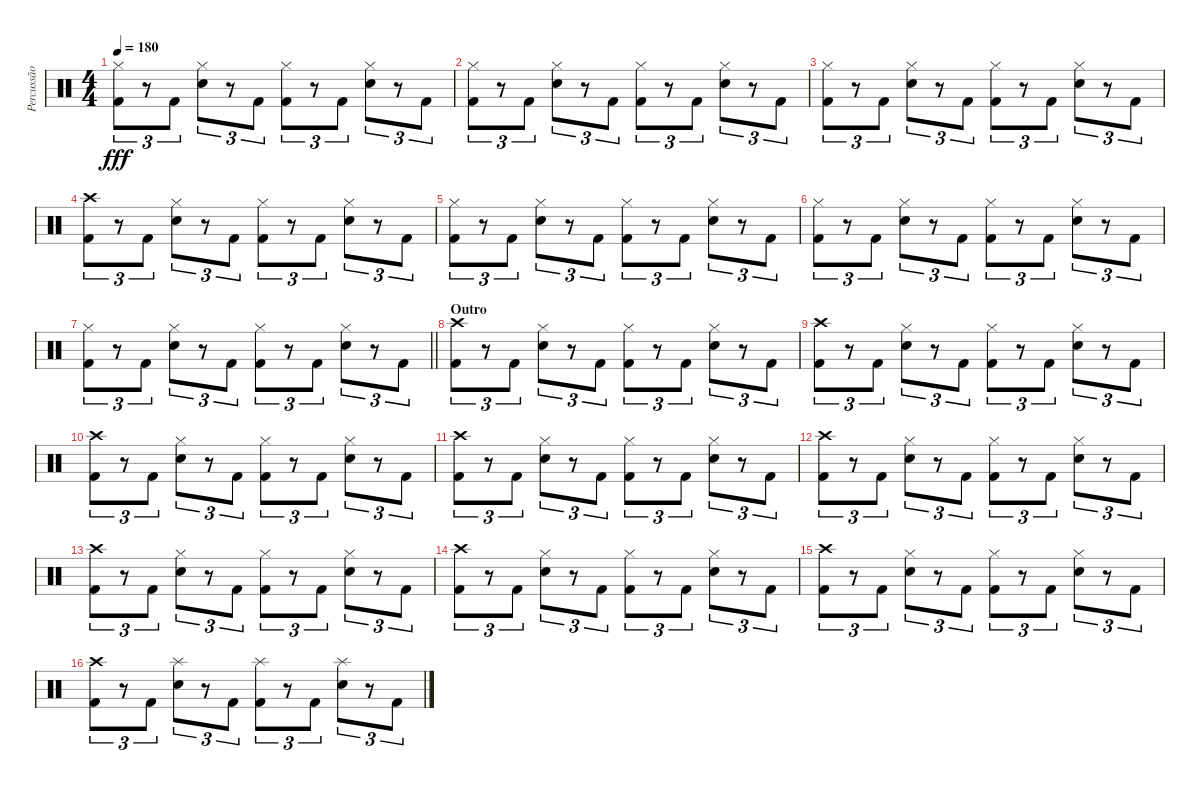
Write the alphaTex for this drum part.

\track ("Percussão" "Percussão") {instrument percussion}
\staff {score}
\articulation defaults
\ts (4 4)
\tempo 180
\clef neutral
\ks c
("Hi-Hat (closed)" "Kick (hit) 2").8{tu (3 2) dy fff} r.8{tu (3 2)} "Kick (hit) 2".8{tu (3 2)} ("Hi-Hat (closed)" "Snare (hit) 2").8{tu (3 2)} r.8{tu (3 2)} "Kick (hit) 2".8{tu (3 2)} ("Hi-Hat (closed)" "Kick (hit) 2").8{tu (3 2)} r.8{tu (3 2)} "Kick (hit) 2".8{tu (3 2)} ("Hi-Hat (closed)" "Snare (hit) 2").8{tu (3 2)} r.8{tu (3 2)} "Kick (hit) 2".8{tu (3 2)} |
("Hi-Hat (closed)" "Kick (hit) 2").8{tu (3 2)} r.8{tu (3 2)} "Kick (hit) 2".8{tu (3 2)} ("Hi-Hat (closed)" "Snare (hit) 2").8{tu (3 2)} r.8{tu (3 2)} "Kick (hit) 2".8{tu (3 2)} ("Hi-Hat (closed)" "Kick (hit) 2").8{tu (3 2)} r.8{tu (3 2)} "Kick (hit) 2".8{tu (3 2)} ("Hi-Hat (closed)" "Snare (hit) 2").8{tu (3 2)} r.8{tu (3 2)} "Kick (hit) 2".8{tu (3 2)} |
("Hi-Hat (closed)" "Kick (hit) 2").8{tu (3 2)} r.8{tu (3 2)} "Kick (hit) 2".8{tu (3 2)} ("Hi-Hat (closed)" "Snare (hit) 2").8{tu (3 2)} r.8{tu (3 2)} "Kick (hit) 2".8{tu (3 2)} ("Hi-Hat (closed)" "Kick (hit) 2").8{tu (3 2)} r.8{tu (3 2)} "Kick (hit) 2".8{tu (3 2)} ("Hi-Hat (closed)" "Snare (hit) 2").8{tu (3 2)} r.8{tu (3 2)} "Kick (hit) 2".8{tu (3 2)} |
("Crash high (hit)" "Kick (hit) 2").8{tu (3 2)} r.8{tu (3 2)} "Kick (hit) 2".8{tu (3 2)} ("Hi-Hat (closed)" "Snare (hit) 2").8{tu (3 2)} r.8{tu (3 2)} "Kick (hit) 2".8{tu (3 2)} ("Hi-Hat (closed)" "Kick (hit) 2").8{tu (3 2)} r.8{tu (3 2)} "Kick (hit) 2".8{tu (3 2)} ("Hi-Hat (closed)" "Snare (hit) 2").8{tu (3 2)} r.8{tu (3 2)} "Kick (hit) 2".8{tu (3 2)} |
("Hi-Hat (closed)" "Kick (hit) 2").8{tu (3 2)} r.8{tu (3 2)} "Kick (hit) 2".8{tu (3 2)} ("Hi-Hat (closed)" "Snare (hit) 2").8{tu (3 2)} r.8{tu (3 2)} "Kick (hit) 2".8{tu (3 2)} ("Hi-Hat (closed)" "Kick (hit) 2").8{tu (3 2)} r.8{tu (3 2)} "Kick (hit) 2".8{tu (3 2)} ("Hi-Hat (closed)" "Snare (hit) 2").8{tu (3 2)} r.8{tu (3 2)} "Kick (hit) 2".8{tu (3 2)} |
("Hi-Hat (closed)" "Kick (hit) 2").8{tu (3 2)} r.8{tu (3 2)} "Kick (hit) 2".8{tu (3 2)} ("Hi-Hat (closed)" "Snare (hit) 2").8{tu (3 2)} r.8{tu (3 2)} "Kick (hit) 2".8{tu (3 2)} ("Hi-Hat (closed)" "Kick (hit) 2").8{tu (3 2)} r.8{tu (3 2)} "Kick (hit) 2".8{tu (3 2)} ("Hi-Hat (closed)" "Snare (hit) 2").8{tu (3 2)} r.8{tu (3 2)} "Kick (hit) 2".8{tu (3 2)} |
\barLineRight lightlight
("Hi-Hat (closed)" "Kick (hit) 2").8{tu (3 2)} r.8{tu (3 2)} "Kick (hit) 2".8{tu (3 2)} ("Hi-Hat (closed)" "Snare (hit) 2").8{tu (3 2)} r.8{tu (3 2)} "Kick (hit) 2".8{tu (3 2)} ("Hi-Hat (closed)" "Kick (hit) 2").8{tu (3 2)} r.8{tu (3 2)} "Kick (hit) 2".8{tu (3 2)} ("Hi-Hat (closed)" "Snare (hit) 2").8{tu (3 2)} r.8{tu (3 2)} "Kick (hit) 2".8{tu (3 2)} |
\section ("" "Outro")
("Crash high (hit)" "Kick (hit) 2").8{tu (3 2)} r.8{tu (3 2)} "Kick (hit) 2".8{tu (3 2)} ("Hi-Hat (closed)" "Snare (hit) 2").8{tu (3 2)} r.8{tu (3 2)} "Kick (hit) 2".8{tu (3 2)} ("Hi-Hat (closed)" "Kick (hit) 2").8{tu (3 2)} r.8{tu (3 2)} "Kick (hit) 2".8{tu (3 2)} ("Hi-Hat (closed)" "Snare (hit) 2").8{tu (3 2)} r.8{tu (3 2)} "Kick (hit) 2".8{tu (3 2)} |
("Crash high (hit)" "Kick (hit) 2").8{tu (3 2)} r.8{tu (3 2)} "Kick (hit) 2".8{tu (3 2)} ("Hi-Hat (closed)" "Snare (hit) 2").8{tu (3 2)} r.8{tu (3 2)} "Kick (hit) 2".8{tu (3 2)} ("Hi-Hat (closed)" "Kick (hit) 2").8{tu (3 2)} r.8{tu (3 2)} "Kick (hit) 2".8{tu (3 2)} ("Hi-Hat (closed)" "Snare (hit) 2").8{tu (3 2)} r.8{tu (3 2)} "Kick (hit) 2".8{tu (3 2)} |
("Crash high (hit)" "Kick (hit) 2").8{tu (3 2)} r.8{tu (3 2)} "Kick (hit) 2".8{tu (3 2)} ("Hi-Hat (closed)" "Snare (hit) 2").8{tu (3 2)} r.8{tu (3 2)} "Kick (hit) 2".8{tu (3 2)} ("Hi-Hat (closed)" "Kick (hit) 2").8{tu (3 2)} r.8{tu (3 2)} "Kick (hit) 2".8{tu (3 2)} ("Hi-Hat (closed)" "Snare (hit) 2").8{tu (3 2)} r.8{tu (3 2)} "Kick (hit) 2".8{tu (3 2)} |
("Crash high (hit)" "Kick (hit) 2").8{tu (3 2)} r.8{tu (3 2)} "Kick (hit) 2".8{tu (3 2)} ("Hi-Hat (closed)" "Snare (hit) 2").8{tu (3 2)} r.8{tu (3 2)} "Kick (hit) 2".8{tu (3 2)} ("Hi-Hat (closed)" "Kick (hit) 2").8{tu (3 2)} r.8{tu (3 2)} "Kick (hit) 2".8{tu (3 2)} ("Hi-Hat (closed)" "Snare (hit) 2").8{tu (3 2)} r.8{tu (3 2)} "Kick (hit) 2".8{tu (3 2)} |
("Crash high (hit)" "Kick (hit) 2").8{tu (3 2)} r.8{tu (3 2)} "Kick (hit) 2".8{tu (3 2)} ("Hi-Hat (closed)" "Snare (hit) 2").8{tu (3 2)} r.8{tu (3 2)} "Kick (hit) 2".8{tu (3 2)} ("Hi-Hat (closed)" "Kick (hit) 2").8{tu (3 2)} r.8{tu (3 2)} "Kick (hit) 2".8{tu (3 2)} ("Hi-Hat (closed)" "Snare (hit) 2").8{tu (3 2)} r.8{tu (3 2)} "Kick (hit) 2".8{tu (3 2)} |
("Crash high (hit)" "Kick (hit) 2").8{tu (3 2)} r.8{tu (3 2)} "Kick (hit) 2".8{tu (3 2)} ("Hi-Hat (closed)" "Snare (hit) 2").8{tu (3 2)} r.8{tu (3 2)} "Kick (hit) 2".8{tu (3 2)} ("Hi-Hat (closed)" "Kick (hit) 2").8{tu (3 2)} r.8{tu (3 2)} "Kick (hit) 2".8{tu (3 2)} ("Hi-Hat (closed)" "Snare (hit) 2").8{tu (3 2)} r.8{tu (3 2)} "Kick (hit) 2".8{tu (3 2)} |
("Crash high (hit)" "Kick (hit) 2").8{tu (3 2)} r.8{tu (3 2)} "Kick (hit) 2".8{tu (3 2)} ("Hi-Hat (closed)" "Snare (hit) 2").8{tu (3 2)} r.8{tu (3 2)} "Kick (hit) 2".8{tu (3 2)} ("Hi-Hat (closed)" "Kick (hit) 2").8{tu (3 2)} r.8{tu (3 2)} "Kick (hit) 2".8{tu (3 2)} ("Hi-Hat (closed)" "Snare (hit) 2").8{tu (3 2)} r.8{tu (3 2)} "Kick (hit) 2".8{tu (3 2)} |
("Crash high (hit)" "Kick (hit) 2").8{tu (3 2)} r.8{tu (3 2)} "Kick (hit) 2".8{tu (3 2)} ("Hi-Hat (closed)" "Snare (hit) 2").8{tu (3 2)} r.8{tu (3 2)} "Kick (hit) 2".8{tu (3 2)} ("Hi-Hat (closed)" "Kick (hit) 2").8{tu (3 2)} r.8{tu (3 2)} "Kick (hit) 2".8{tu (3 2)} ("Hi-Hat (closed)" "Snare (hit) 2").8{tu (3 2)} r.8{tu (3 2)} "Kick (hit) 2".8{tu (3 2)} |
("Crash high (hit)" "Kick (hit) 2").8{tu (3 2)} r.8{tu (3 2)} "Kick (hit) 2".8{tu (3 2)} ("Splash (hit)" "Snare (hit) 2").8{tu (3 2)} r.8{tu (3 2)} "Kick (hit) 2".8{tu (3 2)} ("Splash (hit)" "Kick (hit) 2").8{tu (3 2)} r.8{tu (3 2)} "Kick (hit) 2".8{tu (3 2)} ("Splash (hit)" "Snare (hit) 2").8{tu (3 2)} r.8{tu (3 2)} "Kick (hit) 2".8{tu (3 2)}
